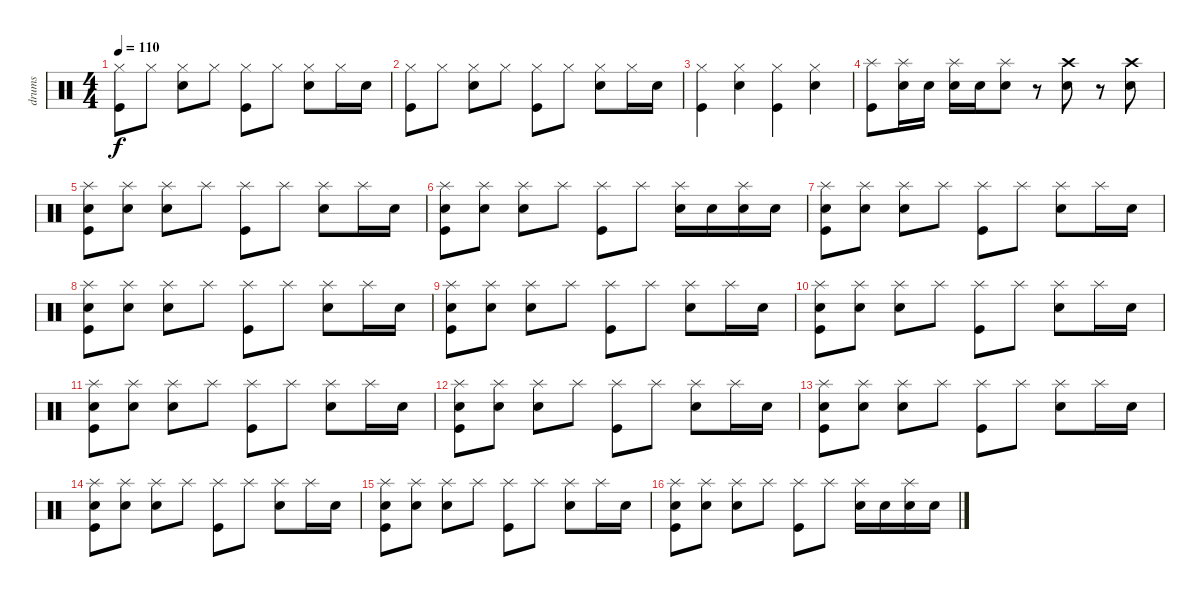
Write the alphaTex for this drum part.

\track ("drums" "drums") {instrument percussion}
\staff {score}
\articulation defaults
\ts (4 4)
\tempo 110
\clef neutral
\ks c
("Hi-Hat (closed)" "Kick (hit)").8{dy f} "Hi-Hat (closed)".8 ("Hi-Hat (closed)" "Snare (hit) 2").8 "Hi-Hat (closed)".8 ("Hi-Hat (closed)" "Kick (hit)").8 "Hi-Hat (closed)".8 ("Hi-Hat (closed)" "Snare (hit) 2").8 "Hi-Hat (closed)".16 "Snare (hit) 2".16 |
("Hi-Hat (closed)" "Kick (hit)").8 "Hi-Hat (closed)".8 ("Hi-Hat (closed)" "Snare (hit) 2").8 "Hi-Hat (closed)".8 ("Hi-Hat (closed)" "Kick (hit)").8 "Hi-Hat (closed)".8 ("Hi-Hat (closed)" "Snare (hit) 2").8 "Hi-Hat (closed)".16 "Snare (hit) 2".16 |
("Hi-Hat (closed)" "Kick (hit)").4 ("Hi-Hat (closed)" "Snare (hit) 2").4 ("Hi-Hat (closed)" "Kick (hit)").4 ("Hi-Hat (closed)" "Snare (hit) 2").4 |
("Splash (hit)" "Kick (hit)").8 ("Splash (hit)" "Snare (hit) 2").16 "Snare (hit) 2".16 ("Splash (hit)" "Snare (hit) 2").16 "Snare (hit) 2".16 ("Splash (hit)" "Snare (hit) 2").8 r.8 ("Crash high (hit)" "Snare (hit) 2").8 r.8 ("Crash high (hit)" "Snare (hit) 2").8 |
("Splash (hit)" "Snare (hit) 2" "Kick (hit)").8 ("Splash (hit)" "Snare (hit) 2").8 ("Splash (hit)" "Snare (hit) 2").8 "Splash (hit)".8 ("Splash (hit)" "Kick (hit)").8 "Splash (hit)".8 ("Splash (hit)" "Snare (hit) 2").8 "Splash (hit)".16 "Snare (hit) 2".16 |
("Splash (hit)" "Snare (hit) 2" "Kick (hit)").8 ("Splash (hit)" "Snare (hit) 2").8 ("Splash (hit)" "Snare (hit) 2").8 "Splash (hit)".8 ("Splash (hit)" "Kick (hit)").8 "Splash (hit)".8 ("Splash (hit)" "Snare (hit) 2").16 "Snare (hit) 2".16 ("Splash (hit)" "Snare (hit) 2").16 "Snare (hit) 2".16 |
("Splash (hit)" "Snare (hit) 2" "Kick (hit)").8 ("Splash (hit)" "Snare (hit) 2").8 ("Splash (hit)" "Snare (hit) 2").8 "Splash (hit)".8 ("Splash (hit)" "Kick (hit)").8 "Splash (hit)".8 ("Splash (hit)" "Snare (hit) 2").8 "Splash (hit)".16 "Snare (hit) 2".16 |
("Splash (hit)" "Snare (hit) 2" "Kick (hit)").8 ("Splash (hit)" "Snare (hit) 2").8 ("Splash (hit)" "Snare (hit) 2").8 "Splash (hit)".8 ("Splash (hit)" "Kick (hit)").8 "Splash (hit)".8 ("Splash (hit)" "Snare (hit) 2").8 "Splash (hit)".16 "Snare (hit) 2".16 |
("Splash (hit)" "Snare (hit) 2" "Kick (hit)").8 ("Splash (hit)" "Snare (hit) 2").8 ("Splash (hit)" "Snare (hit) 2").8 "Splash (hit)".8 ("Splash (hit)" "Kick (hit)").8 "Splash (hit)".8 ("Splash (hit)" "Snare (hit) 2").8 "Splash (hit)".16 "Snare (hit) 2".16 |
("Splash (hit)" "Snare (hit) 2" "Kick (hit)").8 ("Splash (hit)" "Snare (hit) 2").8 ("Splash (hit)" "Snare (hit) 2").8 "Splash (hit)".8 ("Splash (hit)" "Kick (hit)").8 "Splash (hit)".8 ("Splash (hit)" "Snare (hit) 2").8 "Splash (hit)".16 "Snare (hit) 2".16 |
("Splash (hit)" "Snare (hit) 2" "Kick (hit)").8 ("Splash (hit)" "Snare (hit) 2").8 ("Splash (hit)" "Snare (hit) 2").8 "Splash (hit)".8 ("Splash (hit)" "Kick (hit)").8 "Splash (hit)".8 ("Splash (hit)" "Snare (hit) 2").8 "Splash (hit)".16 "Snare (hit) 2".16 |
("Splash (hit)" "Snare (hit) 2" "Kick (hit)").8 ("Splash (hit)" "Snare (hit) 2").8 ("Splash (hit)" "Snare (hit) 2").8 "Splash (hit)".8 ("Splash (hit)" "Kick (hit)").8 "Splash (hit)".8 ("Splash (hit)" "Snare (hit) 2").8 "Splash (hit)".16 "Snare (hit) 2".16 |
("Splash (hit)" "Snare (hit) 2" "Kick (hit)").8 ("Splash (hit)" "Snare (hit) 2").8 ("Splash (hit)" "Snare (hit) 2").8 "Splash (hit)".8 ("Splash (hit)" "Kick (hit)").8 "Splash (hit)".8 ("Splash (hit)" "Snare (hit) 2").8 "Splash (hit)".16 "Snare (hit) 2".16 |
("Splash (hit)" "Snare (hit) 2" "Kick (hit)").8 ("Splash (hit)" "Snare (hit) 2").8 ("Splash (hit)" "Snare (hit) 2").8 "Splash (hit)".8 ("Splash (hit)" "Kick (hit)").8 "Splash (hit)".8 ("Splash (hit)" "Snare (hit) 2").8 "Splash (hit)".16 "Snare (hit) 2".16 |
("Splash (hit)" "Snare (hit) 2" "Kick (hit)").8 ("Splash (hit)" "Snare (hit) 2").8 ("Splash (hit)" "Snare (hit) 2").8 "Splash (hit)".8 ("Splash (hit)" "Kick (hit)").8 "Splash (hit)".8 ("Splash (hit)" "Snare (hit) 2").8 "Splash (hit)".16 "Snare (hit) 2".16 |
("Splash (hit)" "Snare (hit) 2" "Kick (hit)").8 ("Splash (hit)" "Snare (hit) 2").8 ("Splash (hit)" "Snare (hit) 2").8 "Splash (hit)".8 ("Splash (hit)" "Kick (hit)").8 "Splash (hit)".8 ("Splash (hit)" "Snare (hit) 2").16 "Snare (hit) 2".16 ("Splash (hit)" "Snare (hit) 2").16 "Snare (hit) 2".16
